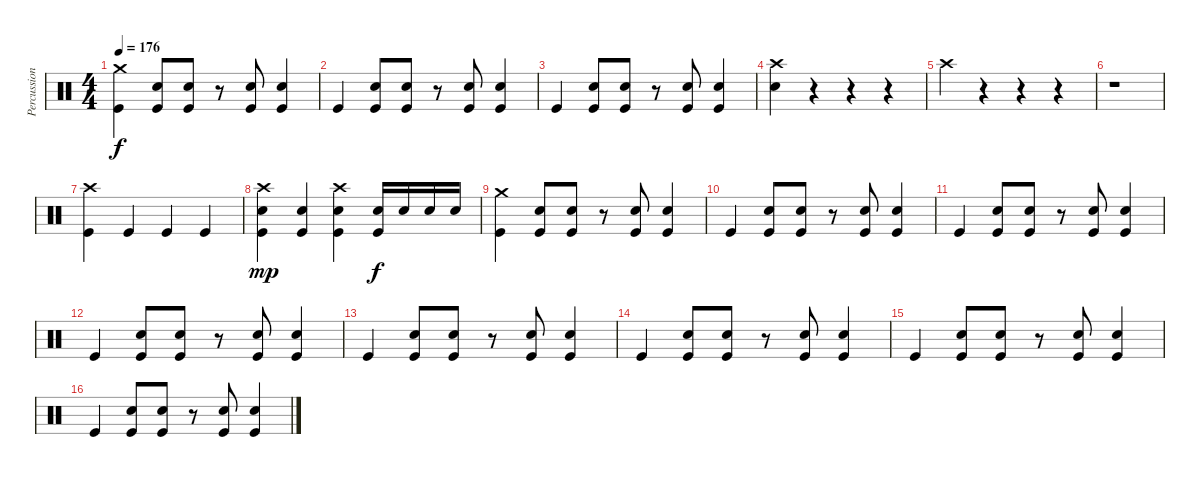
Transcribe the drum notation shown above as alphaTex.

\track ("Percussion" "Percussion") {instrument percussion}
\staff {score}
\articulation defaults
\ts (4 4)
\tempo 176
\clef neutral
\ks c
("Crash medium (hit)" "Kick (hit)").4{dy f} ("Snare (hit) 2" "Kick (hit)").8 ("Snare (hit) 2" "Kick (hit)").8 r.8 ("Snare (hit) 2" "Kick (hit)").8 ("Snare (hit) 2" "Kick (hit)").4 |
"Kick (hit)".4 ("Snare (hit) 2" "Kick (hit)").8 ("Snare (hit) 2" "Kick (hit)").8 r.8 ("Snare (hit) 2" "Kick (hit)").8 ("Snare (hit) 2" "Kick (hit)").4 |
"Kick (hit)".4 ("Snare (hit) 2" "Kick (hit)").8 ("Snare (hit) 2" "Kick (hit)").8 r.8 ("Snare (hit) 2" "Kick (hit)").8 ("Snare (hit) 2" "Kick (hit)").4 |
("Crash high (hit)" "Snare (hit) 2").4 r.4 r.4 r.4 |
"Crash high (hit)".4 r.4 r.4 r.4 |
r.1 |
("Crash high (hit)" "Kick (hit)").4 "Kick (hit)".4 "Kick (hit)".4 "Kick (hit)".4 |
("Crash high (hit)" "Kick (hit)" "Snare (hit) 2").4{dy mp} ("Kick (hit)" "Snare (hit) 2").4 ("Crash high (hit)" "Kick (hit)" "Snare (hit) 2").4 ("Kick (hit)" "Snare (hit) 2").16{dy f} "Snare (hit) 2".16 "Snare (hit) 2".16 "Snare (hit) 2".16 |
("Crash medium (hit)" "Kick (hit)").4 ("Snare (hit) 2" "Kick (hit)").8 ("Snare (hit) 2" "Kick (hit)").8 r.8 ("Snare (hit) 2" "Kick (hit)").8 ("Snare (hit) 2" "Kick (hit)").4 |
"Kick (hit)".4 ("Snare (hit) 2" "Kick (hit)").8 ("Snare (hit) 2" "Kick (hit)").8 r.8 ("Snare (hit) 2" "Kick (hit)").8 ("Snare (hit) 2" "Kick (hit)").4 |
"Kick (hit)".4 ("Snare (hit) 2" "Kick (hit)").8 ("Snare (hit) 2" "Kick (hit)").8 r.8 ("Snare (hit) 2" "Kick (hit)").8 ("Snare (hit) 2" "Kick (hit)").4 |
"Kick (hit)".4 ("Snare (hit) 2" "Kick (hit)").8 ("Snare (hit) 2" "Kick (hit)").8 r.8 ("Snare (hit) 2" "Kick (hit)").8 ("Snare (hit) 2" "Kick (hit)").4 |
"Kick (hit)".4 ("Snare (hit) 2" "Kick (hit)").8 ("Snare (hit) 2" "Kick (hit)").8 r.8 ("Snare (hit) 2" "Kick (hit)").8 ("Snare (hit) 2" "Kick (hit)").4 |
"Kick (hit)".4 ("Snare (hit) 2" "Kick (hit)").8 ("Snare (hit) 2" "Kick (hit)").8 r.8 ("Snare (hit) 2" "Kick (hit)").8 ("Snare (hit) 2" "Kick (hit)").4 |
"Kick (hit)".4 ("Snare (hit) 2" "Kick (hit)").8 ("Snare (hit) 2" "Kick (hit)").8 r.8 ("Snare (hit) 2" "Kick (hit)").8 ("Snare (hit) 2" "Kick (hit)").4 |
"Kick (hit)".4 ("Snare (hit) 2" "Kick (hit)").8 ("Snare (hit) 2" "Kick (hit)").8 r.8 ("Snare (hit) 2" "Kick (hit)").8 ("Snare (hit) 2" "Kick (hit)").4
